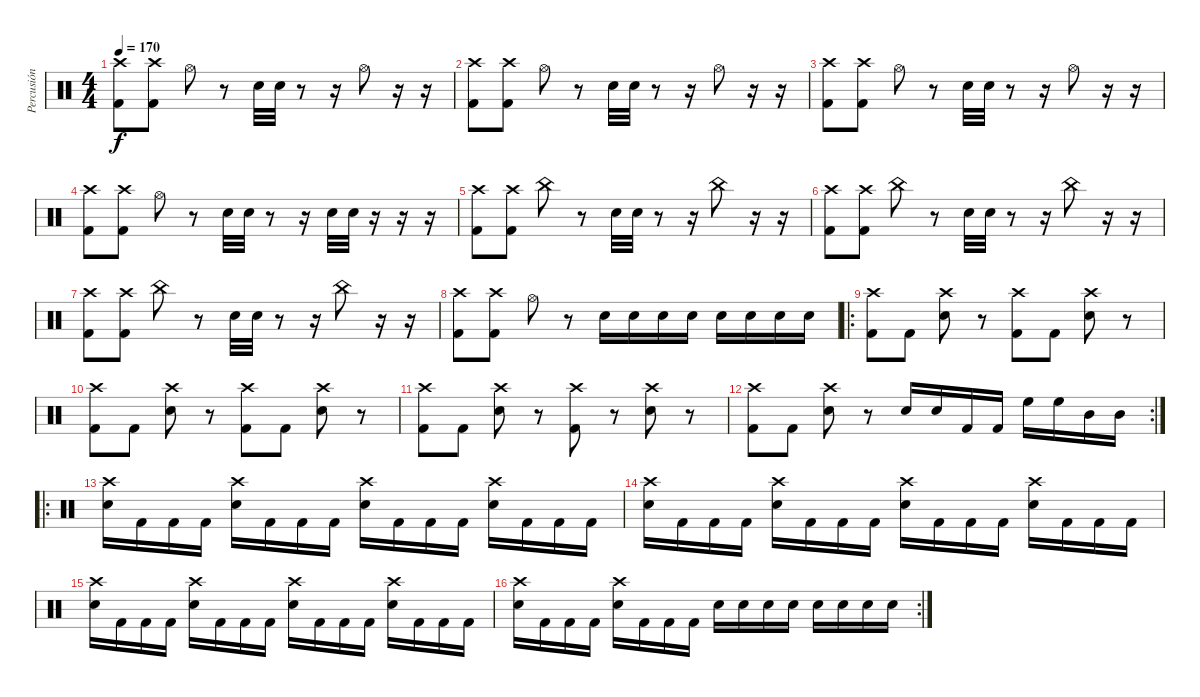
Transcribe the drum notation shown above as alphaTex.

\track ("Percusión" "Percusión") {instrument percussion}
\staff {score}
\articulation defaults
\ts (4 4)
\tempo 170
\clef neutral
\ks c
("Crash high (hit)" "Kick (hit) 2").8{dy f} ("Crash high (hit)" "Kick (hit) 2").8 "Hi-Hat (open)".8 r.8 "Electric Snare (hit)".32 "Electric Snare (hit)".32 r.8 r.16 "Hi-Hat (open)".8 r.16 r.16 |
("Crash high (hit)" "Kick (hit) 2").8 ("Crash high (hit)" "Kick (hit) 2").8 "Hi-Hat (open)".8 r.8 "Electric Snare (hit)".32 "Electric Snare (hit)".32 r.8 r.16 "Hi-Hat (open)".8 r.16 r.16 |
("Crash high (hit)" "Kick (hit) 2").8 ("Crash high (hit)" "Kick (hit) 2").8 "Hi-Hat (open)".8 r.8 "Electric Snare (hit)".32 "Electric Snare (hit)".32 r.8 r.16 "Hi-Hat (open)".8 r.16 r.16 |
("Crash high (hit)" "Kick (hit) 2").8 ("Crash high (hit)" "Kick (hit) 2").8 "Hi-Hat (open)".8 r.8 "Electric Snare (hit)".32 "Electric Snare (hit)".32 r.8 r.16 "Electric Snare (hit)".32 "Electric Snare (hit)".32 r.16 r.16 r.16 |
("Crash high (hit)" "Kick (hit) 2").8 ("Crash high (hit)" "Kick (hit) 2").8 "China (hit)".8 r.8 "Electric Snare (hit)".32 "Electric Snare (hit)".32 r.8 r.16 "China (hit)".8 r.16 r.16 |
("Crash high (hit)" "Kick (hit) 2").8 ("Crash high (hit)" "Kick (hit) 2").8 "China (hit)".8 r.8 "Electric Snare (hit)".32 "Electric Snare (hit)".32 r.8 r.16 "China (hit)".8 r.16 r.16 |
("Crash high (hit)" "Kick (hit) 2").8 ("Crash high (hit)" "Kick (hit) 2").8 "China (hit)".8 r.8 "Electric Snare (hit)".32 "Electric Snare (hit)".32 r.8 r.16 "China (hit)".8 r.16 r.16 |
("Crash high (hit)" "Kick (hit) 2").8 ("Crash high (hit)" "Kick (hit) 2").8 "Hi-Hat (open)".8 r.8 "Electric Snare (hit)".16 "Electric Snare (hit)".16 "Electric Snare (hit)".16 "Electric Snare (hit)".16 "Electric Snare (hit)".16 "Electric Snare (hit)".16 "Electric Snare (hit)".16 "Electric Snare (hit)".16 |
\ro
("Crash high (hit)" "Kick (hit) 2").8 "Kick (hit) 2".8 ("Crash high (hit)" "Electric Snare (hit)").8 r.8 ("Crash high (hit)" "Kick (hit) 2").8 "Kick (hit) 2".8 ("Crash high (hit)" "Electric Snare (hit)").8 r.8 |
("Crash high (hit)" "Kick (hit) 2").8 "Kick (hit) 2".8 ("Crash high (hit)" "Electric Snare (hit)").8 r.8 ("Crash high (hit)" "Kick (hit) 2").8 "Kick (hit) 2".8 ("Crash high (hit)" "Electric Snare (hit)").8 r.8 |
("Crash high (hit)" "Kick (hit) 2").8 "Kick (hit) 2".8 ("Crash high (hit)" "Electric Snare (hit)").8 r.8 ("Crash high (hit)" "Kick (hit) 2").8 r.8 ("Crash high (hit)" "Electric Snare (hit)").8 r.8 |
\rc 2
("Crash high (hit)" "Kick (hit) 2").8 "Kick (hit) 2".8 ("Crash high (hit)" "Electric Snare (hit)").8 r.8 "Electric Snare (hit)".16 "Electric Snare (hit)".16 "Kick (hit) 2".16 "Kick (hit) 2".16 "High Floor Tom (hit)".16 "High Floor Tom (hit)".16 "Mid Tom (hit)".16 "Mid Tom (hit)".16 |
\ro
("Crash high (hit)" "Electric Snare (hit)").16 "Kick (hit) 2".16 "Kick (hit) 2".16 "Kick (hit) 2".16 ("Crash high (hit)" "Electric Snare (hit)").16 "Kick (hit) 2".16 "Kick (hit) 2".16 "Kick (hit) 2".16 ("Crash high (hit)" "Electric Snare (hit)").16 "Kick (hit) 2".16 "Kick (hit) 2".16 "Kick (hit) 2".16 ("Crash high (hit)" "Electric Snare (hit)").16 "Kick (hit) 2".16 "Kick (hit) 2".16 "Kick (hit) 2".16 |
("Crash high (hit)" "Electric Snare (hit)").16 "Kick (hit) 2".16 "Kick (hit) 2".16 "Kick (hit) 2".16 ("Crash high (hit)" "Electric Snare (hit)").16 "Kick (hit) 2".16 "Kick (hit) 2".16 "Kick (hit) 2".16 ("Crash high (hit)" "Electric Snare (hit)").16 "Kick (hit) 2".16 "Kick (hit) 2".16 "Kick (hit) 2".16 ("Crash high (hit)" "Electric Snare (hit)").16 "Kick (hit) 2".16 "Kick (hit) 2".16 "Kick (hit) 2".16 |
("Crash high (hit)" "Electric Snare (hit)").16 "Kick (hit) 2".16 "Kick (hit) 2".16 "Kick (hit) 2".16 ("Crash high (hit)" "Electric Snare (hit)").16 "Kick (hit) 2".16 "Kick (hit) 2".16 "Kick (hit) 2".16 ("Crash high (hit)" "Electric Snare (hit)").16 "Kick (hit) 2".16 "Kick (hit) 2".16 "Kick (hit) 2".16 ("Crash high (hit)" "Electric Snare (hit)").16 "Kick (hit) 2".16 "Kick (hit) 2".16 "Kick (hit) 2".16 |
\rc 2
("Crash high (hit)" "Electric Snare (hit)").16 "Kick (hit) 2".16 "Kick (hit) 2".16 "Kick (hit) 2".16 ("Crash high (hit)" "Electric Snare (hit)").16 "Kick (hit) 2".16 "Kick (hit) 2".16 "Kick (hit) 2".16 "Electric Snare (hit)".16 "Electric Snare (hit)".16 "Electric Snare (hit)".16 "Electric Snare (hit)".16 "Electric Snare (hit)".16 "Electric Snare (hit)".16 "Electric Snare (hit)".16 "Electric Snare (hit)".16
